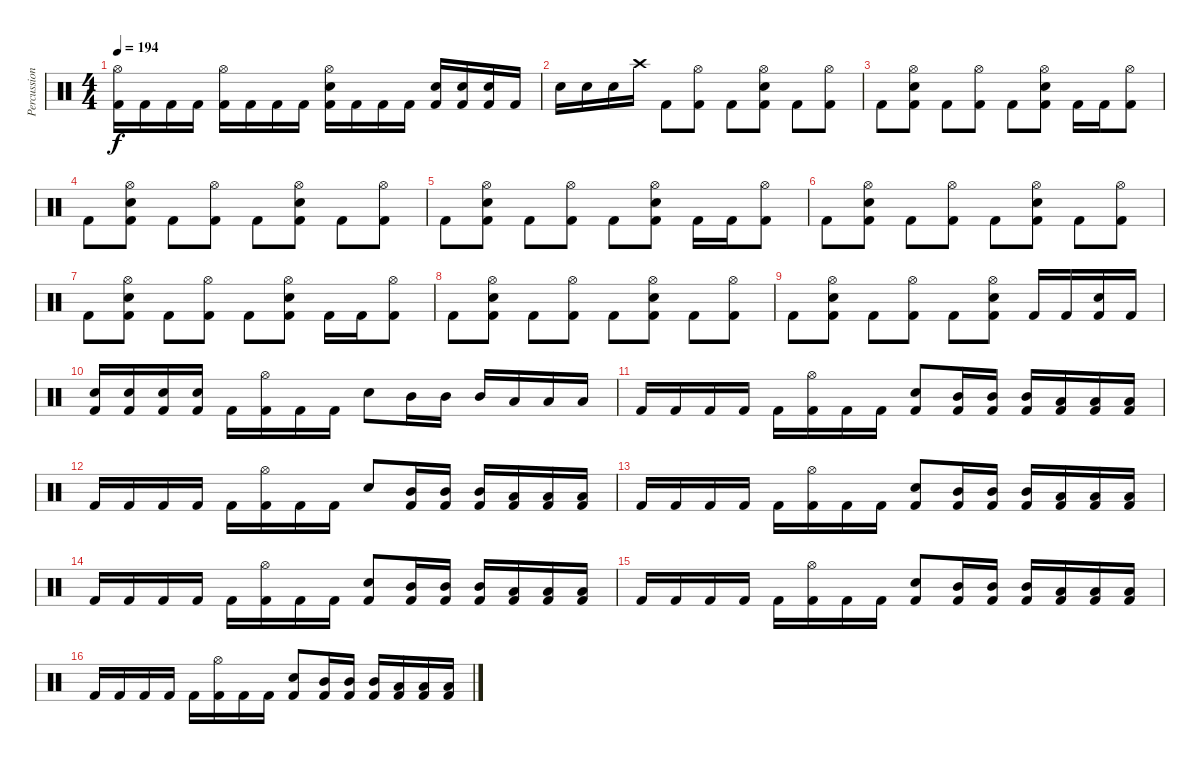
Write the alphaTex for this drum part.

\track ("Percussions" "Percussion") {instrument percussion}
\staff {score}
\articulation defaults
\ts (4 4)
\tempo 194
\clef neutral
\ks c
("Hi-Hat (open)" "Kick (hit) 2").16{dy f} "Kick (hit) 2".16 "Kick (hit) 2".16 "Kick (hit) 2".16 ("Hi-Hat (open)" "Kick (hit) 2").16 "Kick (hit) 2".16 "Kick (hit) 2".16 "Kick (hit) 2".16 ("Hi-Hat (open)" "Electric Snare (hit)" "Kick (hit) 2").16 "Kick (hit) 2".16 "Kick (hit) 2".16 "Kick (hit) 2".16 ("Electric Snare (hit)" "Kick (hit) 2").16 ("Electric Snare (hit)" "Kick (hit) 2").16 ("Electric Snare (hit)" "Kick (hit) 2").16 "Kick (hit) 2".16 |
"Electric Snare (hit)".16 "Electric Snare (hit)".16 "Electric Snare (hit)".16 "Crash high (hit)".16 "Kick (hit) 2".8 ("Hi-Hat (open)" "Kick (hit) 2").8 "Kick (hit) 2".8 ("Hi-Hat (open)" "Electric Snare (hit)" "Kick (hit) 2").8 "Kick (hit) 2".8 ("Hi-Hat (open)" "Kick (hit) 2").8 |
"Kick (hit) 2".8 ("Hi-Hat (open)" "Electric Snare (hit)" "Kick (hit) 2").8 "Kick (hit) 2".8 ("Hi-Hat (open)" "Kick (hit) 2").8 "Kick (hit) 2".8 ("Hi-Hat (open)" "Electric Snare (hit)" "Kick (hit) 2").8 "Kick (hit) 2".16 "Kick (hit) 2".16 ("Hi-Hat (open)" "Kick (hit) 2").8 |
"Kick (hit) 2".8 ("Hi-Hat (open)" "Electric Snare (hit)" "Kick (hit) 2").8 "Kick (hit) 2".8 ("Hi-Hat (open)" "Kick (hit) 2").8 "Kick (hit) 2".8 ("Hi-Hat (open)" "Electric Snare (hit)" "Kick (hit) 2").8 "Kick (hit) 2".8 ("Hi-Hat (open)" "Kick (hit) 2").8 |
"Kick (hit) 2".8 ("Hi-Hat (open)" "Electric Snare (hit)" "Kick (hit) 2").8 "Kick (hit) 2".8 ("Hi-Hat (open)" "Kick (hit) 2").8 "Kick (hit) 2".8 ("Hi-Hat (open)" "Electric Snare (hit)" "Kick (hit) 2").8 "Kick (hit) 2".16 "Kick (hit) 2".16 ("Hi-Hat (open)" "Kick (hit) 2").8 |
"Kick (hit) 2".8 ("Hi-Hat (open)" "Electric Snare (hit)" "Kick (hit) 2").8 "Kick (hit) 2".8 ("Hi-Hat (open)" "Kick (hit) 2").8 "Kick (hit) 2".8 ("Hi-Hat (open)" "Electric Snare (hit)" "Kick (hit) 2").8 "Kick (hit) 2".8 ("Hi-Hat (open)" "Kick (hit) 2").8 |
"Kick (hit) 2".8 ("Hi-Hat (open)" "Electric Snare (hit)" "Kick (hit) 2").8 "Kick (hit) 2".8 ("Hi-Hat (open)" "Kick (hit) 2").8 "Kick (hit) 2".8 ("Hi-Hat (open)" "Electric Snare (hit)" "Kick (hit) 2").8 "Kick (hit) 2".16 "Kick (hit) 2".16 ("Hi-Hat (open)" "Kick (hit) 2").8 |
"Kick (hit) 2".8 ("Hi-Hat (open)" "Electric Snare (hit)" "Kick (hit) 2").8 "Kick (hit) 2".8 ("Hi-Hat (open)" "Kick (hit) 2").8 "Kick (hit) 2".8 ("Hi-Hat (open)" "Electric Snare (hit)" "Kick (hit) 2").8 "Kick (hit) 2".8 ("Hi-Hat (open)" "Kick (hit) 2").8 |
"Kick (hit) 2".8 ("Hi-Hat (open)" "Electric Snare (hit)" "Kick (hit) 2").8 "Kick (hit) 2".8 ("Hi-Hat (open)" "Kick (hit) 2").8 "Kick (hit) 2".8 ("Hi-Hat (open)" "Electric Snare (hit)" "Kick (hit) 2").8 "Kick (hit) 2".16 "Kick (hit) 2".16 ("Electric Snare (hit)" "Kick (hit) 2").16 "Kick (hit) 2".16 |
("Electric Snare (hit)" "Kick (hit) 2").16 ("Electric Snare (hit)" "Kick (hit) 2").16 ("Electric Snare (hit)" "Kick (hit) 2").16 ("Electric Snare (hit)" "Kick (hit) 2").16 "Kick (hit) 2".16 ("Hi-Hat (open)" "Kick (hit) 2").16 "Kick (hit) 2".16 "Kick (hit) 2".16 "Electric Snare (hit)".8 "Mid Tom (hit)".16 "Mid Tom (hit)".16 "Mid Tom (hit)".16 "Low Tom (hit)".16 "Low Tom (hit)".16 "Low Tom (hit)".16 |
"Kick (hit) 2".16 "Kick (hit) 2".16 "Kick (hit) 2".16 "Kick (hit) 2".16 "Kick (hit) 2".16 ("Hi-Hat (open)" "Kick (hit) 2").16 "Kick (hit) 2".16 "Kick (hit) 2".16 ("Electric Snare (hit)" "Kick (hit) 2").8 ("Mid Tom (hit)" "Kick (hit) 2").16 ("Mid Tom (hit)" "Kick (hit) 2").16 ("Mid Tom (hit)" "Kick (hit) 2").16 ("Low Tom (hit)" "Kick (hit) 2").16 ("Low Tom (hit)" "Kick (hit) 2").16 ("Low Tom (hit)" "Kick (hit) 2").16 |
"Kick (hit) 2".16 "Kick (hit) 2".16 "Kick (hit) 2".16 "Kick (hit) 2".16 "Kick (hit) 2".16 ("Hi-Hat (open)" "Kick (hit) 2").16 "Kick (hit) 2".16 "Kick (hit) 2".16 "Electric Snare (hit)".8 ("Mid Tom (hit)" "Kick (hit) 2").16 ("Mid Tom (hit)" "Kick (hit) 2").16 ("Mid Tom (hit)" "Kick (hit) 2").16 ("Low Tom (hit)" "Kick (hit) 2").16 ("Low Tom (hit)" "Kick (hit) 2").16 ("Low Tom (hit)" "Kick (hit) 2").16 |
"Kick (hit) 2".16 "Kick (hit) 2".16 "Kick (hit) 2".16 "Kick (hit) 2".16 "Kick (hit) 2".16 ("Hi-Hat (open)" "Kick (hit) 2").16 "Kick (hit) 2".16 "Kick (hit) 2".16 ("Electric Snare (hit)" "Kick (hit) 2").8 ("Mid Tom (hit)" "Kick (hit) 2").16 ("Mid Tom (hit)" "Kick (hit) 2").16 ("Mid Tom (hit)" "Kick (hit) 2").16 ("Low Tom (hit)" "Kick (hit) 2").16 ("Low Tom (hit)" "Kick (hit) 2").16 ("Low Tom (hit)" "Kick (hit) 2").16 |
"Kick (hit) 2".16 "Kick (hit) 2".16 "Kick (hit) 2".16 "Kick (hit) 2".16 "Kick (hit) 2".16 ("Hi-Hat (open)" "Kick (hit) 2").16 "Kick (hit) 2".16 "Kick (hit) 2".16 ("Electric Snare (hit)" "Kick (hit) 2").8 ("Mid Tom (hit)" "Kick (hit) 2").16 ("Mid Tom (hit)" "Kick (hit) 2").16 ("Mid Tom (hit)" "Kick (hit) 2").16 ("Low Tom (hit)" "Kick (hit) 2").16 ("Low Tom (hit)" "Kick (hit) 2").16 ("Low Tom (hit)" "Kick (hit) 2").16 |
"Kick (hit) 2".16 "Kick (hit) 2".16 "Kick (hit) 2".16 "Kick (hit) 2".16 "Kick (hit) 2".16 ("Hi-Hat (open)" "Kick (hit) 2").16 "Kick (hit) 2".16 "Kick (hit) 2".16 ("Electric Snare (hit)" "Kick (hit) 2").8 ("Mid Tom (hit)" "Kick (hit) 2").16 ("Mid Tom (hit)" "Kick (hit) 2").16 ("Mid Tom (hit)" "Kick (hit) 2").16 ("Low Tom (hit)" "Kick (hit) 2").16 ("Low Tom (hit)" "Kick (hit) 2").16 ("Low Tom (hit)" "Kick (hit) 2").16 |
"Kick (hit) 2".16 "Kick (hit) 2".16 "Kick (hit) 2".16 "Kick (hit) 2".16 "Kick (hit) 2".16 ("Hi-Hat (open)" "Kick (hit) 2").16 "Kick (hit) 2".16 "Kick (hit) 2".16 ("Electric Snare (hit)" "Kick (hit) 2").8 ("Mid Tom (hit)" "Kick (hit) 2").16 ("Mid Tom (hit)" "Kick (hit) 2").16 ("Mid Tom (hit)" "Kick (hit) 2").16 ("Low Tom (hit)" "Kick (hit) 2").16 ("Low Tom (hit)" "Kick (hit) 2").16 ("Low Tom (hit)" "Kick (hit) 2").16
